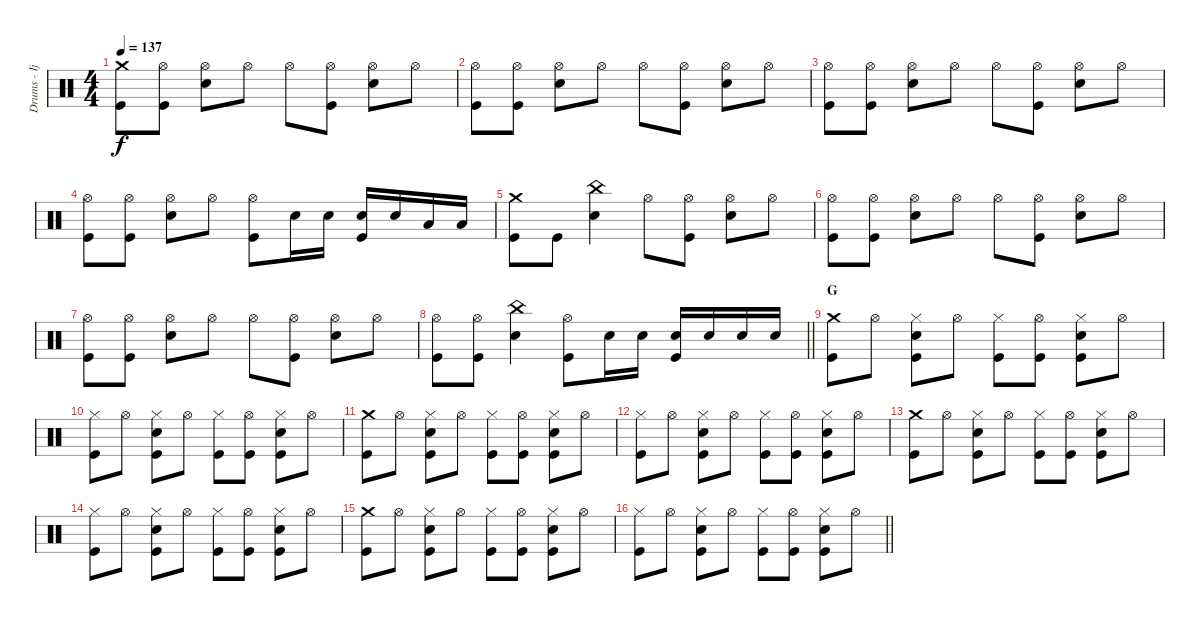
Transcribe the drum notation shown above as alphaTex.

\track ("Drums - Ijichi" "Drums - Ij") {instrument percussion}
\staff {score}
\articulation defaults
\ts (4 4)
\tempo 137
\clef neutral
\ks c
("Crash medium (hit)" "Kick (hit)").8{dy f} ("Hi-Hat (open)" "Kick (hit)").8 ("Hi-Hat (open)" "Electric Snare (hit)").8 "Hi-Hat (open)".8 "Hi-Hat (open)".8 ("Hi-Hat (open)" "Kick (hit)").8 ("Hi-Hat (open)" "Electric Snare (hit)").8 "Hi-Hat (open)".8 |
("Hi-Hat (open)" "Kick (hit)").8 ("Hi-Hat (open)" "Kick (hit)").8 ("Hi-Hat (open)" "Electric Snare (hit)").8 "Hi-Hat (open)".8 "Hi-Hat (open)".8 ("Hi-Hat (open)" "Kick (hit)").8 ("Hi-Hat (open)" "Electric Snare (hit)").8 "Hi-Hat (open)".8 |
("Hi-Hat (open)" "Kick (hit)").8 ("Hi-Hat (open)" "Kick (hit)").8 ("Hi-Hat (open)" "Electric Snare (hit)").8 "Hi-Hat (open)".8 "Hi-Hat (open)".8 ("Hi-Hat (open)" "Kick (hit)").8 ("Hi-Hat (open)" "Electric Snare (hit)").8 "Hi-Hat (open)".8 |
("Hi-Hat (open)" "Kick (hit)").8 ("Hi-Hat (open)" "Kick (hit)").8 ("Hi-Hat (open)" "Electric Snare (hit)").8 "Hi-Hat (open)".8 ("Hi-Hat (open)" "Kick (hit)").8 "Electric Snare (hit)".16 "Electric Snare (hit)".16 ("Electric Snare (hit)" "Kick (hit)").16 "Electric Snare (hit)".16 "Low Tom (hit)".16 "Low Tom (hit)".16 |
("Crash medium (hit)" "Kick (hit)").8 "Kick (hit)".8 ("China (hit)" "Electric Snare (hit)").4 "Hi-Hat (open)".8 ("Hi-Hat (open)" "Kick (hit)").8 ("Hi-Hat (open)" "Electric Snare (hit)").8 "Hi-Hat (open)".8 |
("Hi-Hat (open)" "Kick (hit)").8 ("Hi-Hat (open)" "Kick (hit)").8 ("Hi-Hat (open)" "Electric Snare (hit)").8 "Hi-Hat (open)".8 "Hi-Hat (open)".8 ("Hi-Hat (open)" "Kick (hit)").8 ("Hi-Hat (open)" "Electric Snare (hit)").8 "Hi-Hat (open)".8 |
("Hi-Hat (open)" "Kick (hit)").8 ("Hi-Hat (open)" "Kick (hit)").8 ("Hi-Hat (open)" "Electric Snare (hit)").8 "Hi-Hat (open)".8 "Hi-Hat (open)".8 ("Hi-Hat (open)" "Kick (hit)").8 ("Hi-Hat (open)" "Electric Snare (hit)").8 "Hi-Hat (open)".8 |
\barLineRight lightlight
("Hi-Hat (open)" "Kick (hit)").8 ("Hi-Hat (open)" "Kick (hit)").8 ("China (hit)" "Electric Snare (hit)").4 ("Hi-Hat (open)" "Kick (hit)").8 "Electric Snare (hit)".16 "Electric Snare (hit)".16 ("Electric Snare (hit)" "Kick (hit)").16 "Electric Snare (hit)".16 "Electric Snare (hit)".16 "Electric Snare (hit)".16 |
\section ("" "G")
("Crash medium (hit)" "Kick (hit)").8 "Hi-Hat (open)".8 ("Hi-Hat (closed)" "Electric Snare (hit)" "Kick (hit)").8 "Hi-Hat (open)".8 ("Hi-Hat (closed)" "Kick (hit)").8 ("Hi-Hat (open)" "Kick (hit)").8 ("Hi-Hat (closed)" "Electric Snare (hit)" "Kick (hit)").8 "Hi-Hat (open)".8 |
("Hi-Hat (closed)" "Kick (hit)").8 "Hi-Hat (open)".8 ("Hi-Hat (closed)" "Electric Snare (hit)" "Kick (hit)").8 "Hi-Hat (open)".8 ("Hi-Hat (closed)" "Kick (hit)").8 ("Hi-Hat (open)" "Kick (hit)").8 ("Hi-Hat (closed)" "Electric Snare (hit)" "Kick (hit)").8 "Hi-Hat (open)".8 |
("Crash medium (hit)" "Kick (hit)").8 "Hi-Hat (open)".8 ("Hi-Hat (closed)" "Electric Snare (hit)" "Kick (hit)").8 "Hi-Hat (open)".8 ("Hi-Hat (closed)" "Kick (hit)").8 ("Hi-Hat (open)" "Kick (hit)").8 ("Hi-Hat (closed)" "Electric Snare (hit)" "Kick (hit)").8 "Hi-Hat (open)".8 |
("Hi-Hat (closed)" "Kick (hit)").8 "Hi-Hat (open)".8 ("Hi-Hat (closed)" "Electric Snare (hit)" "Kick (hit)").8 "Hi-Hat (open)".8 ("Hi-Hat (closed)" "Kick (hit)").8 ("Hi-Hat (open)" "Kick (hit)").8 ("Hi-Hat (closed)" "Electric Snare (hit)" "Kick (hit)").8 "Hi-Hat (open)".8 |
("Crash medium (hit)" "Kick (hit)").8 "Hi-Hat (open)".8 ("Hi-Hat (closed)" "Electric Snare (hit)" "Kick (hit)").8 "Hi-Hat (open)".8 ("Hi-Hat (closed)" "Kick (hit)").8 ("Hi-Hat (open)" "Kick (hit)").8 ("Hi-Hat (closed)" "Electric Snare (hit)" "Kick (hit)").8 "Hi-Hat (open)".8 |
("Hi-Hat (closed)" "Kick (hit)").8 "Hi-Hat (open)".8 ("Hi-Hat (closed)" "Electric Snare (hit)" "Kick (hit)").8 "Hi-Hat (open)".8 ("Hi-Hat (closed)" "Kick (hit)").8 ("Hi-Hat (open)" "Kick (hit)").8 ("Hi-Hat (closed)" "Electric Snare (hit)" "Kick (hit)").8 "Hi-Hat (open)".8 |
("Crash medium (hit)" "Kick (hit)").8 "Hi-Hat (open)".8 ("Hi-Hat (closed)" "Electric Snare (hit)" "Kick (hit)").8 "Hi-Hat (open)".8 ("Hi-Hat (closed)" "Kick (hit)").8 ("Hi-Hat (open)" "Kick (hit)").8 ("Hi-Hat (closed)" "Electric Snare (hit)" "Kick (hit)").8 "Hi-Hat (open)".8 |
\barLineRight lightlight
("Hi-Hat (closed)" "Kick (hit)").8 "Hi-Hat (open)".8 ("Hi-Hat (closed)" "Electric Snare (hit)" "Kick (hit)").8 "Hi-Hat (open)".8 ("Hi-Hat (closed)" "Kick (hit)").8 ("Hi-Hat (open)" "Kick (hit)").8 ("Hi-Hat (closed)" "Electric Snare (hit)" "Kick (hit)").8 "Hi-Hat (open)".8
